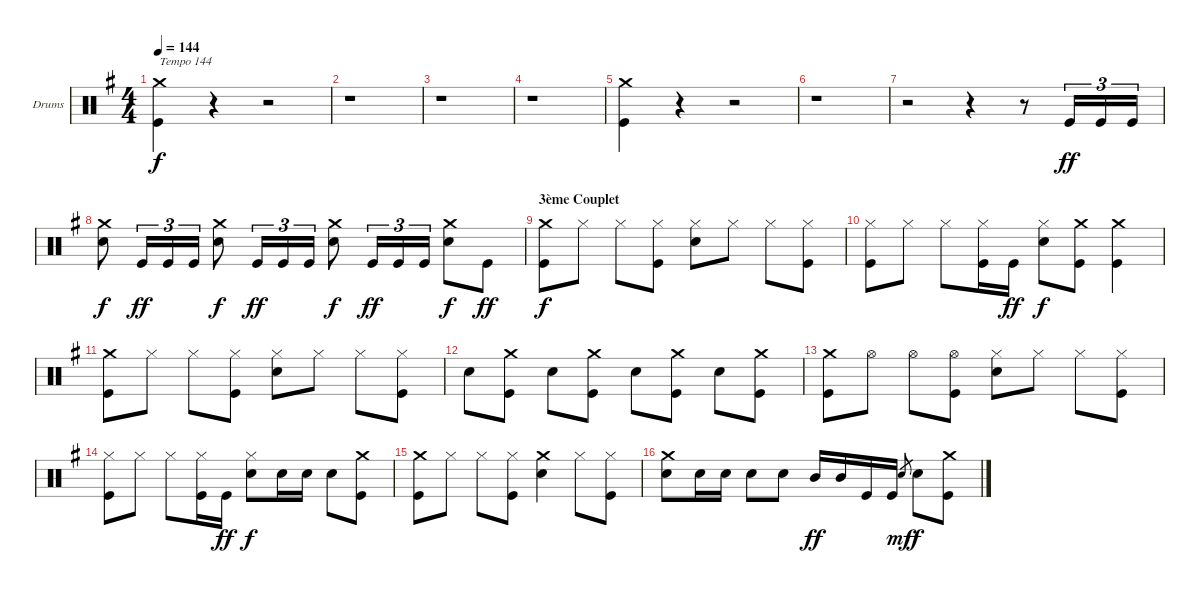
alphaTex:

\bracketExtendMode groupsimilarinstruments
\firstSystemTrackNameOrientation horizontal
\otherSystemsTrackNameOrientation horizontal
\track ("Drumkit" "Drums") {instrument percussion}
\staff {score}
\articulation defaults
\ts (4 4)
\tempo 144
\clef neutral
\ks g
("Crash medium (hit)" "Kick (hit)").4{txt "Tempo 144" dy f} r.4 r.2 |
r.1 |
r.1 |
r.1 |
("Crash medium (hit)" "Kick (hit)").4 r.4 r.2 |
r.1 |
r.2 r.4 r.8 "Kick (hit)".16{tu (3 2) dy ff} "Kick (hit)".16{tu (3 2)} "Kick (hit)".16{tu (3 2)} |
("Crash medium (hit)" "Snare (hit) 2").8{dy f} "Kick (hit)".16{tu (3 2) dy ff} "Kick (hit)".16{tu (3 2)} "Kick (hit)".16{tu (3 2)} ("Crash medium (hit)" "Snare (hit) 2").8{dy f} "Kick (hit)".16{tu (3 2) dy ff} "Kick (hit)".16{tu (3 2)} "Kick (hit)".16{tu (3 2)} ("Crash medium (hit)" "Snare (hit) 2").8{dy f} "Kick (hit)".16{tu (3 2) dy ff} "Kick (hit)".16{tu (3 2)} "Kick (hit)".16{tu (3 2)} ("Crash medium (hit)" "Snare (hit) 2").8{dy f} "Kick (hit)".8{dy ff} |
\section ("" "3ème Couplet")
("Crash medium (hit)" "Kick (hit)").8{dy f} "Hi-Hat (closed)".8 "Hi-Hat (closed)".8 ("Hi-Hat (closed)" "Kick (hit)").8 ("Hi-Hat (closed)" "Snare (hit) 2").8 "Hi-Hat (closed)".8 "Hi-Hat (closed)".8 ("Hi-Hat (closed)" "Kick (hit)").8 |
("Hi-Hat (closed)" "Kick (hit)").8 "Hi-Hat (closed)".8 "Hi-Hat (closed)".8 ("Hi-Hat (closed)" "Kick (hit)").16 "Kick (hit)".16{dy ff} ("Hi-Hat (closed)" "Snare (hit) 2").8{dy f} ("Crash medium (hit)" "Kick (hit)").8 ("Crash medium (hit)" "Kick (hit)").4 |
("Crash medium (hit)" "Kick (hit)").8 "Hi-Hat (closed)".8 "Hi-Hat (closed)".8 ("Hi-Hat (closed)" "Kick (hit)").8 ("Hi-Hat (closed)" "Snare (hit) 2").8 "Hi-Hat (closed)".8 "Hi-Hat (closed)".8 ("Hi-Hat (closed)" "Kick (hit)").8 |
"Snare (hit) 2".8 ("Crash medium (hit)" "Kick (hit)").8 "Snare (hit) 2".8 ("Crash medium (hit)" "Kick (hit)").8 "Snare (hit) 2".8 ("Crash medium (hit)" "Kick (hit)").8 "Snare (hit) 2".8 ("Crash medium (hit)" "Kick (hit)").8 |
("Crash medium (hit)" "Kick (hit)").8 "Hi-Hat (open)".8 "Hi-Hat (open)".8 ("Hi-Hat (open)" "Kick (hit)").8 ("Hi-Hat (closed)" "Snare (hit) 2").8 "Hi-Hat (closed)".8 "Hi-Hat (closed)".8 ("Hi-Hat (closed)" "Kick (hit)").8 |
("Hi-Hat (closed)" "Kick (hit)").8 "Hi-Hat (closed)".8 "Hi-Hat (closed)".8 ("Hi-Hat (closed)" "Kick (hit)").16 "Kick (hit)".16{dy ff} ("Hi-Hat (closed)" "Snare (hit) 2").8{dy f} "Snare (hit) 2".16 "Snare (hit) 2".16 "Snare (hit) 2".8 ("Crash medium (hit)" "Kick (hit)").8 |
("Crash medium (hit)" "Kick (hit)").8 "Hi-Hat (closed)".8 "Hi-Hat (closed)".8 ("Hi-Hat (closed)" "Kick (hit)").8 ("Crash medium (hit)" "Snare (hit) 2").4 "Hi-Hat (closed)".8 ("Hi-Hat (closed)" "Kick (hit)").8 |
("Crash medium (hit)" "Snare (hit) 2").8 "Snare (hit) 2".16 "Snare (hit) 2".16 "Snare (hit) 2".8 "Snare (hit) 2".8 "Mid Tom (hit)".16{dy ff} "Mid Tom (hit)".16 "Kick (hit)".16 "Kick (hit)".16 "Snare (hit) 2".8{gr dy mf} "Snare (hit) 2".8{dy f} ("Crash medium (hit)" "Kick (hit)").8
